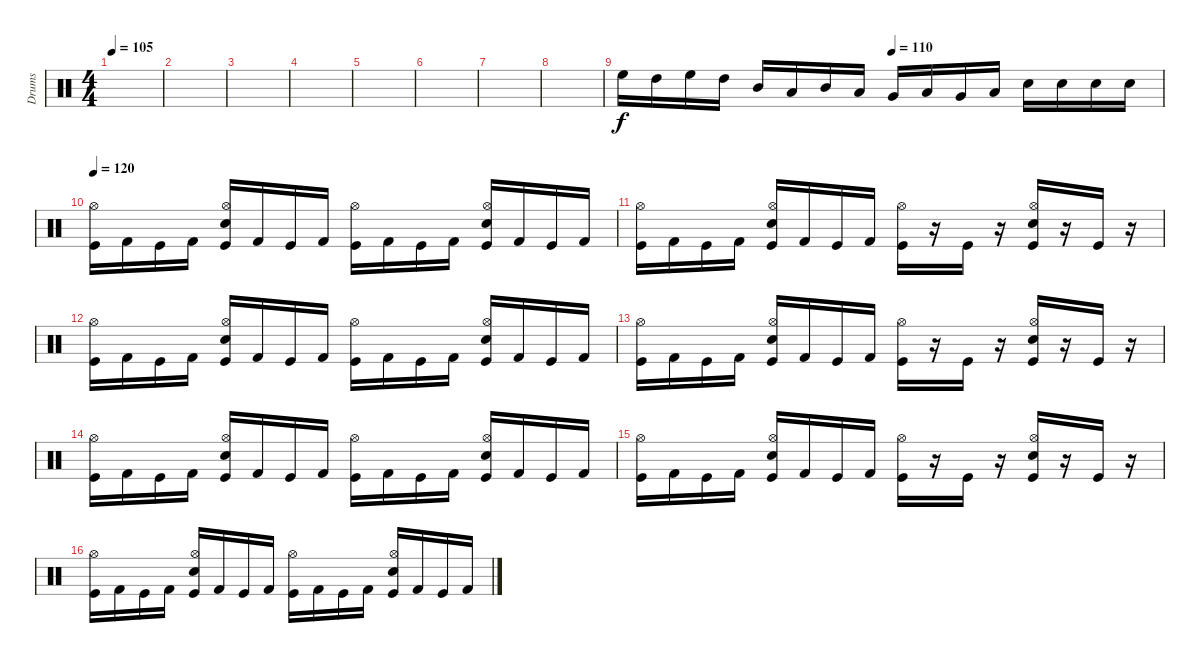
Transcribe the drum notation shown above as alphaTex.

\track ("Drums" "Drums") {instrument percussion}
\staff {score}
\articulation defaults
\ts (4 4)
\tempo 105
\clef neutral
\ks c
|
|
|
|
|
|
|
|
\tempo (110 0.5)
"High Floor Tom (hit)".16 "High Tom (hit)".16 "High Floor Tom (hit)".16 "High Tom (hit)".16 "Mid Tom (hit)".16 "Low Tom (hit)".16 "Mid Tom (hit)".16 "Low Tom (hit)".16 "Very Low Tom (hit)".16 "Low Floor Tom (hit)".16 "Very Low Tom (hit)".16 "Low Floor Tom (hit)".16 "Snare (hit) 2".16 "Snare (hit) 2".16 "Snare (hit) 2".16 "Snare (hit) 2".16 |
\tempo 120
("Hi-Hat (open)" "Kick (hit)").16 "Kick (hit) 2".16 "Kick (hit)".16 "Kick (hit) 2".16 ("Hi-Hat (open)" "Snare (hit) 2" "Kick (hit)").16 "Kick (hit) 2".16 "Kick (hit)".16 "Kick (hit) 2".16 ("Hi-Hat (open)" "Kick (hit)").16 "Kick (hit) 2".16 "Kick (hit)".16 "Kick (hit) 2".16 ("Hi-Hat (open)" "Snare (hit) 2" "Kick (hit)").16 "Kick (hit) 2".16 "Kick (hit)".16 "Kick (hit) 2".16 |
("Hi-Hat (open)" "Kick (hit)").16 "Kick (hit) 2".16 "Kick (hit)".16 "Kick (hit) 2".16 ("Hi-Hat (open)" "Snare (hit) 2" "Kick (hit)").16 "Kick (hit) 2".16 "Kick (hit)".16 "Kick (hit) 2".16 ("Hi-Hat (open)" "Kick (hit)").16 r.16 "Kick (hit)".16 r.16 ("Hi-Hat (open)" "Snare (hit) 2" "Kick (hit)").16 r.16 "Kick (hit)".16 r.16 |
("Hi-Hat (open)" "Kick (hit)").16 "Kick (hit) 2".16 "Kick (hit)".16 "Kick (hit) 2".16 ("Hi-Hat (open)" "Snare (hit) 2" "Kick (hit)").16 "Kick (hit) 2".16 "Kick (hit)".16 "Kick (hit) 2".16 ("Hi-Hat (open)" "Kick (hit)").16 "Kick (hit) 2".16 "Kick (hit)".16 "Kick (hit) 2".16 ("Hi-Hat (open)" "Snare (hit) 2" "Kick (hit)").16 "Kick (hit) 2".16 "Kick (hit)".16 "Kick (hit) 2".16 |
("Hi-Hat (open)" "Kick (hit)").16 "Kick (hit) 2".16 "Kick (hit)".16 "Kick (hit) 2".16 ("Hi-Hat (open)" "Snare (hit) 2" "Kick (hit)").16 "Kick (hit) 2".16 "Kick (hit)".16 "Kick (hit) 2".16 ("Hi-Hat (open)" "Kick (hit)").16 r.16 "Kick (hit)".16 r.16 ("Hi-Hat (open)" "Snare (hit) 2" "Kick (hit)").16 r.16 "Kick (hit)".16 r.16 |
("Hi-Hat (open)" "Kick (hit)").16 "Kick (hit) 2".16 "Kick (hit)".16 "Kick (hit) 2".16 ("Hi-Hat (open)" "Snare (hit) 2" "Kick (hit)").16 "Kick (hit) 2".16 "Kick (hit)".16 "Kick (hit) 2".16 ("Hi-Hat (open)" "Kick (hit)").16 "Kick (hit) 2".16 "Kick (hit)".16 "Kick (hit) 2".16 ("Hi-Hat (open)" "Snare (hit) 2" "Kick (hit)").16 "Kick (hit) 2".16 "Kick (hit)".16 "Kick (hit) 2".16 |
("Hi-Hat (open)" "Kick (hit)").16 "Kick (hit) 2".16 "Kick (hit)".16 "Kick (hit) 2".16 ("Hi-Hat (open)" "Snare (hit) 2" "Kick (hit)").16 "Kick (hit) 2".16 "Kick (hit)".16 "Kick (hit) 2".16 ("Hi-Hat (open)" "Kick (hit)").16 r.16 "Kick (hit)".16 r.16 ("Hi-Hat (open)" "Snare (hit) 2" "Kick (hit)").16 r.16 "Kick (hit)".16 r.16 |
("Hi-Hat (open)" "Kick (hit)").16 "Kick (hit) 2".16 "Kick (hit)".16 "Kick (hit) 2".16 ("Hi-Hat (open)" "Snare (hit) 2" "Kick (hit)").16 "Kick (hit) 2".16 "Kick (hit)".16 "Kick (hit) 2".16 ("Hi-Hat (open)" "Kick (hit)").16 "Kick (hit) 2".16 "Kick (hit)".16 "Kick (hit) 2".16 ("Hi-Hat (open)" "Snare (hit) 2" "Kick (hit)").16 "Kick (hit) 2".16 "Kick (hit)".16 "Kick (hit) 2".16
